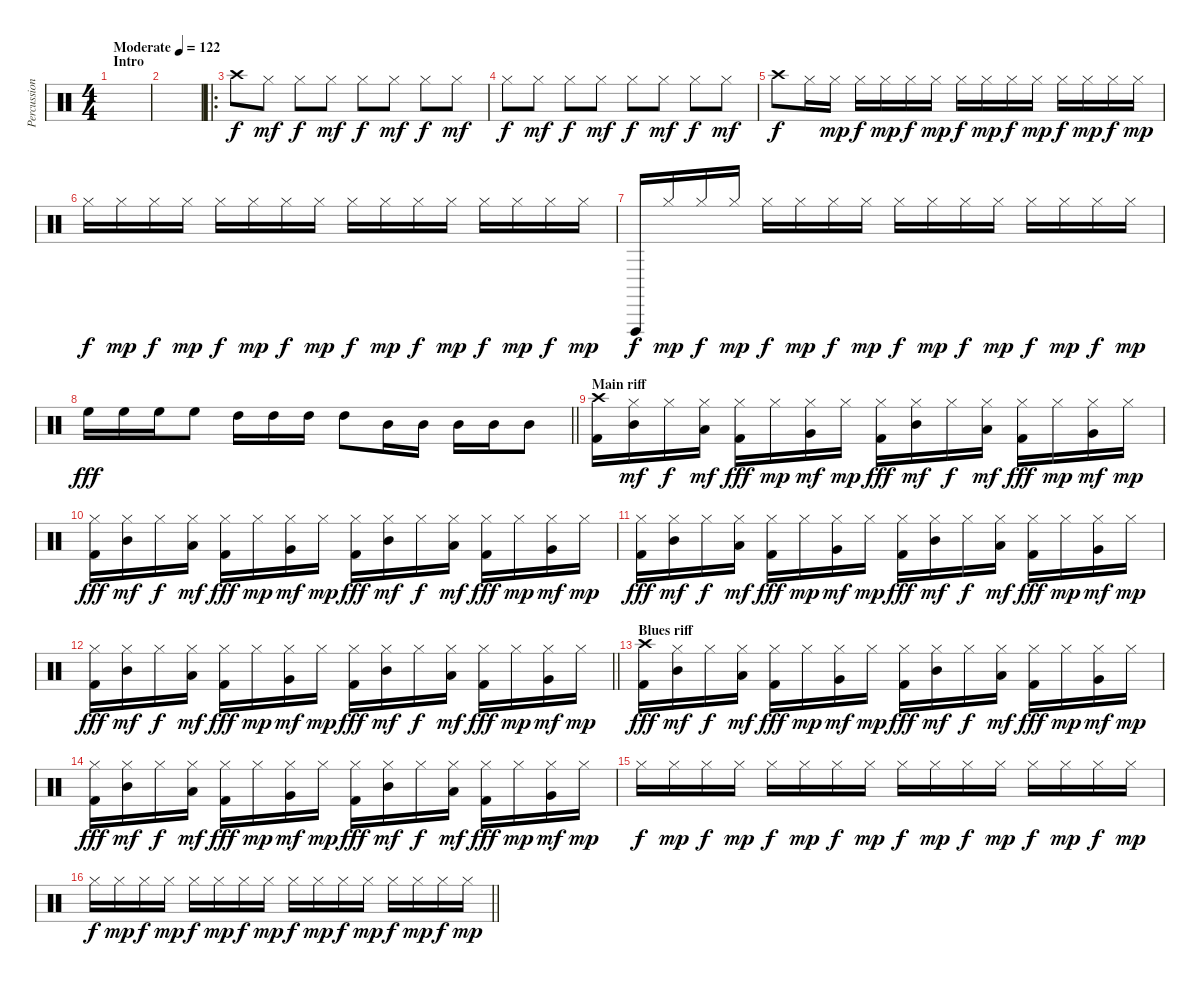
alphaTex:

\track ("Percussions" "Percussion") {instrument percussion}
\staff {score}
\articulation defaults
\ts (4 4)
\section ("" "Intro")
\tempo (122 "Moderate")
\clef neutral
\ks c
|
|
\ro "Crash high (hit)".8 "Hi-Hat (closed)".8{dy mf} "Hi-Hat (closed)".8{dy f} "Hi-Hat (closed)".8{dy mf} "Hi-Hat (closed)".8{dy f} "Hi-Hat (closed)".8{dy mf} "Hi-Hat (closed)".8{dy f} "Hi-Hat (closed)".8{dy mf}
|
"Hi-Hat (closed)".8{dy f} "Hi-Hat (closed)".8{dy mf} "Hi-Hat (closed)".8{dy f} "Hi-Hat (closed)".8{dy mf} "Hi-Hat (closed)".8{dy f} "Hi-Hat (closed)".8{dy mf} "Hi-Hat (closed)".8{dy f} "Hi-Hat (closed)".8{dy mf} |
"Crash high (hit)".8{dy f} "Hi-Hat (closed)".16 "Hi-Hat (closed)".16{dy mp} "Hi-Hat (closed)".16{dy f} "Hi-Hat (closed)".16{dy mp} "Hi-Hat (closed)".16{dy f} "Hi-Hat (closed)".16{dy mp} "Hi-Hat (closed)".16{dy f} "Hi-Hat (closed)".16{dy mp} "Hi-Hat (closed)".16{dy f} "Hi-Hat (closed)".16{dy mp} "Hi-Hat (closed)".16{dy f} "Hi-Hat (closed)".16{dy mp} "Hi-Hat (closed)".16{dy f} "Hi-Hat (closed)".16{dy mp} |
"Hi-Hat (closed)".16{dy f} "Hi-Hat (closed)".16{dy mp} "Hi-Hat (closed)".16{dy f} "Hi-Hat (closed)".16{dy mp} "Hi-Hat (closed)".16{dy f} "Hi-Hat (closed)".16{dy mp} "Hi-Hat (closed)".16{dy f} "Hi-Hat (closed)".16{dy mp} "Hi-Hat (closed)".16{dy f} "Hi-Hat (closed)".16{dy mp} "Hi-Hat (closed)".16{dy f} "Hi-Hat (closed)".16{dy mp} "Hi-Hat (closed)".16{dy f} "Hi-Hat (closed)".16{dy mp} "Hi-Hat (closed)".16{dy f} "Hi-Hat (closed)".16{dy mp} |
"Vibraslap (hit)".16{dy f} "Hi-Hat (closed)".16{dy mp} "Hi-Hat (closed)".16{dy f} "Hi-Hat (closed)".16{dy mp} "Hi-Hat (closed)".16{dy f} "Hi-Hat (closed)".16{dy mp} "Hi-Hat (closed)".16{dy f} "Hi-Hat (closed)".16{dy mp} "Hi-Hat (closed)".16{dy f} "Hi-Hat (closed)".16{dy mp} "Hi-Hat (closed)".16{dy f} "Hi-Hat (closed)".16{dy mp} "Hi-Hat (closed)".16{dy f} "Hi-Hat (closed)".16{dy mp} "Hi-Hat (closed)".16{dy f} "Hi-Hat (closed)".16{dy mp} |
\barLineRight lightlight "High Floor Tom (hit)".16{dy fff} "High Floor Tom (hit)".16 "High Floor Tom (hit)".16 "High Floor Tom (hit)".8 "High Tom (hit)".16 "High Tom (hit)".16 "High Tom (hit)".16 "High Tom (hit)".8 "Mid Tom (hit)".16 "Mid Tom (hit)".16 "Mid Tom (hit)".16 "Mid Tom (hit)".16 "Mid Tom (hit)".8
|
\section ("" "Main riff")
("Crash high (hit)" "Kick (hit) 2").16 ("Hi-Hat (closed)" "Mid Tom (hit)").16{dy mf} "Hi-Hat (closed)".16{dy f} ("Hi-Hat (closed)" "Low Tom (hit)").16{dy mf} ("Hi-Hat (closed)" "Kick (hit) 2").16{dy fff} "Hi-Hat (closed)".16{dy mp} ("Hi-Hat (closed)" "Very Low Tom (hit)").16{dy mf} "Hi-Hat (closed)".16{dy mp} ("Hi-Hat (closed)" "Kick (hit) 2").16{dy fff} ("Hi-Hat (closed)" "Mid Tom (hit)").16{dy mf} "Hi-Hat (closed)".16{dy f} ("Hi-Hat (closed)" "Low Tom (hit)").16{dy mf} ("Hi-Hat (closed)" "Kick (hit) 2").16{dy fff} "Hi-Hat (closed)".16{dy mp} ("Hi-Hat (closed)" "Very Low Tom (hit)").16{dy mf} "Hi-Hat (closed)".16{dy mp} |
("Hi-Hat (closed)" "Kick (hit) 2").16{dy fff} ("Hi-Hat (closed)" "Mid Tom (hit)").16{dy mf} "Hi-Hat (closed)".16{dy f} ("Hi-Hat (closed)" "Low Tom (hit)").16{dy mf} ("Hi-Hat (closed)" "Kick (hit) 2").16{dy fff} "Hi-Hat (closed)".16{dy mp} ("Hi-Hat (closed)" "Very Low Tom (hit)").16{dy mf} "Hi-Hat (closed)".16{dy mp} ("Hi-Hat (closed)" "Kick (hit) 2").16{dy fff} ("Hi-Hat (closed)" "Mid Tom (hit)").16{dy mf} "Hi-Hat (closed)".16{dy f} ("Hi-Hat (closed)" "Low Tom (hit)").16{dy mf} ("Hi-Hat (closed)" "Kick (hit) 2").16{dy fff} "Hi-Hat (closed)".16{dy mp} ("Hi-Hat (closed)" "Very Low Tom (hit)").16{dy mf} "Hi-Hat (closed)".16{dy mp} |
("Hi-Hat (closed)" "Kick (hit) 2").16{dy fff} ("Hi-Hat (closed)" "Mid Tom (hit)").16{dy mf} "Hi-Hat (closed)".16{dy f} ("Hi-Hat (closed)" "Low Tom (hit)").16{dy mf} ("Hi-Hat (closed)" "Kick (hit) 2").16{dy fff} "Hi-Hat (closed)".16{dy mp} ("Hi-Hat (closed)" "Very Low Tom (hit)").16{dy mf} "Hi-Hat (closed)".16{dy mp} ("Hi-Hat (closed)" "Kick (hit) 2").16{dy fff} ("Hi-Hat (closed)" "Mid Tom (hit)").16{dy mf} "Hi-Hat (closed)".16{dy f} ("Hi-Hat (closed)" "Low Tom (hit)").16{dy mf} ("Hi-Hat (closed)" "Kick (hit) 2").16{dy fff} "Hi-Hat (closed)".16{dy mp} ("Hi-Hat (closed)" "Very Low Tom (hit)").16{dy mf} "Hi-Hat (closed)".16{dy mp} |
\barLineRight lightlight
("Hi-Hat (closed)" "Kick (hit) 2").16{dy fff} ("Hi-Hat (closed)" "Mid Tom (hit)").16{dy mf} "Hi-Hat (closed)".16{dy f} ("Hi-Hat (closed)" "Low Tom (hit)").16{dy mf} ("Hi-Hat (closed)" "Kick (hit) 2").16{dy fff} "Hi-Hat (closed)".16{dy mp} ("Hi-Hat (closed)" "Very Low Tom (hit)").16{dy mf} "Hi-Hat (closed)".16{dy mp} ("Hi-Hat (closed)" "Kick (hit) 2").16{dy fff} ("Hi-Hat (closed)" "Mid Tom (hit)").16{dy mf} "Hi-Hat (closed)".16{dy f} ("Hi-Hat (closed)" "Low Tom (hit)").16{dy mf} ("Hi-Hat (closed)" "Kick (hit) 2").16{dy fff} "Hi-Hat (closed)".16{dy mp} ("Hi-Hat (closed)" "Very Low Tom (hit)").16{dy mf} "Hi-Hat (closed)".16{dy mp} |
\section ("" "Blues riff")
("Crash high (hit)" "Kick (hit) 2").16{dy fff} ("Hi-Hat (closed)" "Mid Tom (hit)").16{dy mf} "Hi-Hat (closed)".16{dy f} ("Hi-Hat (closed)" "Low Tom (hit)").16{dy mf} ("Hi-Hat (closed)" "Kick (hit) 2").16{dy fff} "Hi-Hat (closed)".16{dy mp} ("Hi-Hat (closed)" "Very Low Tom (hit)").16{dy mf} "Hi-Hat (closed)".16{dy mp} ("Hi-Hat (closed)" "Kick (hit) 2").16{dy fff} ("Hi-Hat (closed)" "Mid Tom (hit)").16{dy mf} "Hi-Hat (closed)".16{dy f} ("Hi-Hat (closed)" "Low Tom (hit)").16{dy mf} ("Hi-Hat (closed)" "Kick (hit) 2").16{dy fff} "Hi-Hat (closed)".16{dy mp} ("Hi-Hat (closed)" "Very Low Tom (hit)").16{dy mf} "Hi-Hat (closed)".16{dy mp} |
("Hi-Hat (closed)" "Kick (hit) 2").16{dy fff} ("Hi-Hat (closed)" "Mid Tom (hit)").16{dy mf} "Hi-Hat (closed)".16{dy f} ("Hi-Hat (closed)" "Low Tom (hit)").16{dy mf} ("Hi-Hat (closed)" "Kick (hit) 2").16{dy fff} "Hi-Hat (closed)".16{dy mp} ("Hi-Hat (closed)" "Very Low Tom (hit)").16{dy mf} "Hi-Hat (closed)".16{dy mp} ("Hi-Hat (closed)" "Kick (hit) 2").16{dy fff} ("Hi-Hat (closed)" "Mid Tom (hit)").16{dy mf} "Hi-Hat (closed)".16{dy f} ("Hi-Hat (closed)" "Low Tom (hit)").16{dy mf} ("Hi-Hat (closed)" "Kick (hit) 2").16{dy fff} "Hi-Hat (closed)".16{dy mp} ("Hi-Hat (closed)" "Very Low Tom (hit)").16{dy mf} "Hi-Hat (closed)".16{dy mp} |
"Hi-Hat (closed)".16{dy f} "Hi-Hat (closed)".16{dy mp} "Hi-Hat (closed)".16{dy f} "Hi-Hat (closed)".16{dy mp} "Hi-Hat (closed)".16{dy f} "Hi-Hat (closed)".16{dy mp} "Hi-Hat (closed)".16{dy f} "Hi-Hat (closed)".16{dy mp} "Hi-Hat (closed)".16{dy f} "Hi-Hat (closed)".16{dy mp} "Hi-Hat (closed)".16{dy f} "Hi-Hat (closed)".16{dy mp} "Hi-Hat (closed)".16{dy f} "Hi-Hat (closed)".16{dy mp} "Hi-Hat (closed)".16{dy f} "Hi-Hat (closed)".16{dy mp} |
\barLineRight lightlight "Hi-Hat (closed)".16{dy f} "Hi-Hat (closed)".16{dy mp} "Hi-Hat (closed)".16{dy f} "Hi-Hat (closed)".16{dy mp} "Hi-Hat (closed)".16{dy f} "Hi-Hat (closed)".16{dy mp} "Hi-Hat (closed)".16{dy f} "Hi-Hat (closed)".16{dy mp} "Hi-Hat (closed)".16{dy f} "Hi-Hat (closed)".16{dy mp} "Hi-Hat (closed)".16{dy f} "Hi-Hat (closed)".16{dy mp} "Hi-Hat (closed)".16{dy f} "Hi-Hat (closed)".16{dy mp} "Hi-Hat (closed)".16{dy f} "Hi-Hat (closed)".16{dy mp}
